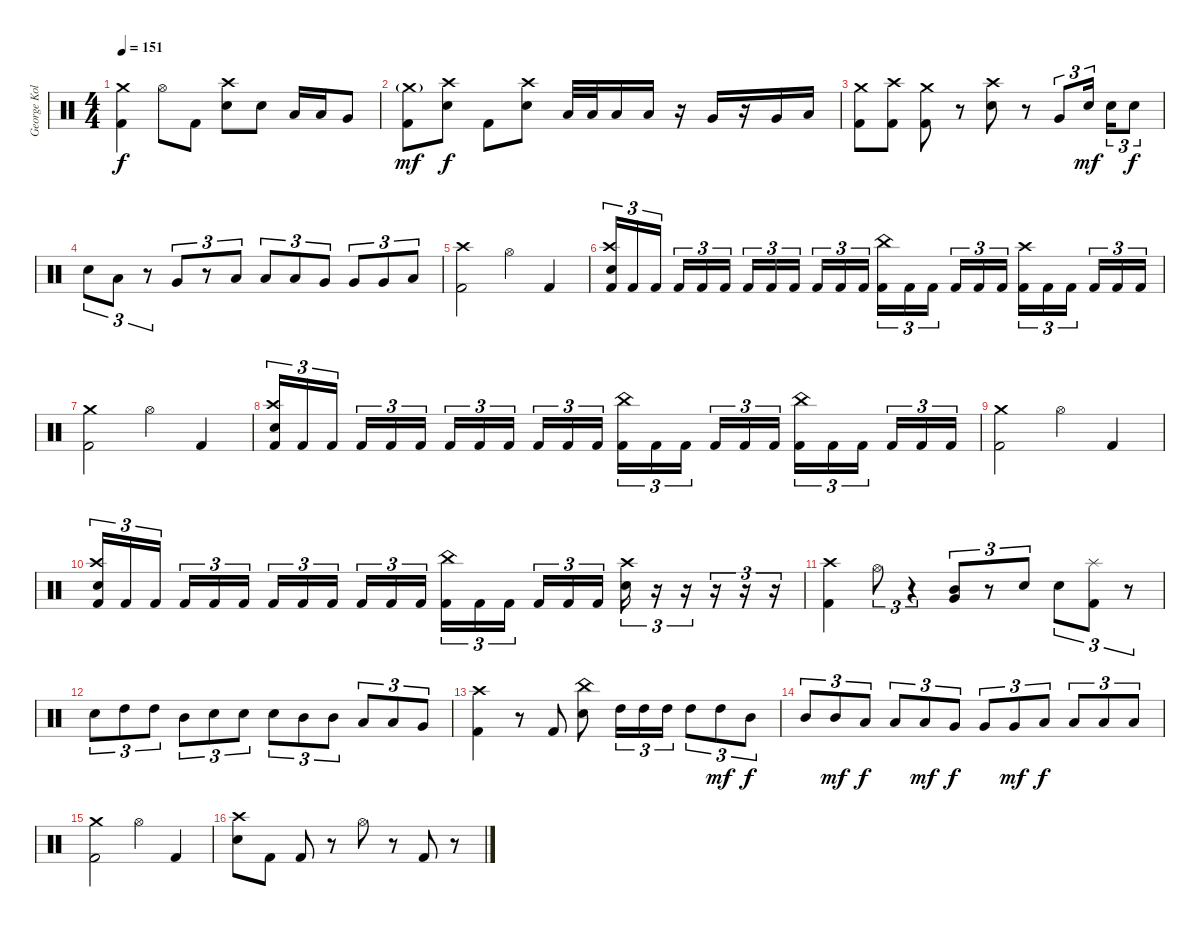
\track ("George Kollias" "George Kol") {instrument percussion}
\staff {score}
\articulation defaults
\ts (4 4)
\tempo 151
\clef neutral
\ks c
("Crash medium (hit)" "Kick (hit) 2").4{dy f} "Hi-Hat (open)".8 "Kick (hit) 2".8 ("Crash high (hit)" "Electric Snare (hit)").8 "Electric Snare (hit)".8 "Low Tom (hit)".16 "Low Tom (hit)".16 "Very Low Tom (hit)".8 |
("Crash medium (hit)"{g} "Kick (hit) 2").8{dy mf} ("Crash high (hit)" "Electric Snare (hit)").8{dy f} "Kick (hit) 2".8 ("Crash high (hit)" "Electric Snare (hit)").8 "Low Tom (hit)".32 "Low Tom (hit)".32 "Low Tom (hit)".16 "Low Tom (hit)".16 r.16 "Very Low Tom (hit)".16 r.16 "Very Low Tom (hit)".16 "Low Floor Tom (hit)".16 |
("Crash medium (hit)" "Kick (hit) 2").8 ("Crash high (hit)" "Kick (hit) 2").8 ("Crash medium (hit)" "Kick (hit) 2").8 r.8 ("Crash high (hit)" "Electric Snare (hit)").8 r.8 "Very Low Tom (hit)".8{tu (3 2)} "Electric Snare (hit)".16{tu (3 2) dy mf beam splitsecondary} "Electric Snare (hit)".16{tu (3 2)} "Electric Snare (hit)".8{tu (3 2) dy f} |
"Electric Snare (hit)".8{tu (3 2)} "Low Tom (hit)".8{tu (3 2)} r.8{tu (3 2)} "Very Low Tom (hit)".8{tu (3 2)} r.8{tu (3 2)} "Low Tom (hit)".8{tu (3 2)} "Low Tom (hit)".8{tu (3 2)} "Low Tom (hit)".8{tu (3 2)} "Very Low Tom (hit)".8{tu (3 2)} "Very Low Tom (hit)".8{tu (3 2)} "Very Low Tom (hit)".8{tu (3 2)} "Low Floor Tom (hit)".8{tu (3 2)} |
("Crash high (hit)" "Kick (hit) 2").2 "Hi-Hat (open)".4 "Kick (hit) 2".4 |
("Crash high (hit)" "Electric Snare (hit)" "Kick (hit) 2").16{tu (3 2)} "Kick (hit) 2".16{tu (3 2)} "Kick (hit) 2".16{tu (3 2) beam splitsecondary} "Kick (hit) 2".16{tu (3 2)} "Kick (hit) 2".16{tu (3 2)} "Kick (hit) 2".16{tu (3 2)} "Kick (hit) 2".16{tu (3 2)} "Kick (hit) 2".16{tu (3 2)} "Kick (hit) 2".16{tu (3 2) beam splitsecondary} "Kick (hit) 2".16{tu (3 2)} "Kick (hit) 2".16{tu (3 2)} "Kick (hit) 2".16{tu (3 2)} ("China (hit)" "Kick (hit) 2").16{tu (3 2)} "Kick (hit) 2".16{tu (3 2)} "Kick (hit) 2".16{tu (3 2) beam splitsecondary} "Kick (hit) 2".16{tu (3 2)} "Kick (hit) 2".16{tu (3 2)} "Kick (hit) 2".16{tu (3 2)} ("Crash high (hit)" "Kick (hit) 2").16{tu (3 2)} "Kick (hit) 2".16{tu (3 2)} "Kick (hit) 2".16{tu (3 2) beam splitsecondary} "Kick (hit) 2".16{tu (3 2)} "Kick (hit) 2".16{tu (3 2)} "Kick (hit) 2".16{tu (3 2)} |
("Crash medium (hit)" "Kick (hit) 2").2 "Hi-Hat (open)".4 "Kick (hit) 2".4 |
("Crash high (hit)" "Electric Snare (hit)" "Kick (hit) 2").16{tu (3 2)} "Kick (hit) 2".16{tu (3 2)} "Kick (hit) 2".16{tu (3 2) beam splitsecondary} "Kick (hit) 2".16{tu (3 2)} "Kick (hit) 2".16{tu (3 2)} "Kick (hit) 2".16{tu (3 2)} "Kick (hit) 2".16{tu (3 2)} "Kick (hit) 2".16{tu (3 2)} "Kick (hit) 2".16{tu (3 2) beam splitsecondary} "Kick (hit) 2".16{tu (3 2)} "Kick (hit) 2".16{tu (3 2)} "Kick (hit) 2".16{tu (3 2)} ("China (hit)" "Kick (hit) 2").16{tu (3 2)} "Kick (hit) 2".16{tu (3 2)} "Kick (hit) 2".16{tu (3 2) beam splitsecondary} "Kick (hit) 2".16{tu (3 2)} "Kick (hit) 2".16{tu (3 2)} "Kick (hit) 2".16{tu (3 2)} ("China (hit)" "Kick (hit) 2").16{tu (3 2)} "Kick (hit) 2".16{tu (3 2)} "Kick (hit) 2".16{tu (3 2) beam splitsecondary} "Kick (hit) 2".16{tu (3 2)} "Kick (hit) 2".16{tu (3 2)} "Kick (hit) 2".16{tu (3 2)} |
("Crash medium (hit)" "Kick (hit) 2").2 "Hi-Hat (open)".4 "Kick (hit) 2".4 |
("Crash high (hit)" "Electric Snare (hit)" "Kick (hit) 2").16{tu (3 2)} "Kick (hit) 2".16{tu (3 2)} "Kick (hit) 2".16{tu (3 2) beam splitsecondary} "Kick (hit) 2".16{tu (3 2)} "Kick (hit) 2".16{tu (3 2)} "Kick (hit) 2".16{tu (3 2)} "Kick (hit) 2".16{tu (3 2)} "Kick (hit) 2".16{tu (3 2)} "Kick (hit) 2".16{tu (3 2) beam splitsecondary} "Kick (hit) 2".16{tu (3 2)} "Kick (hit) 2".16{tu (3 2)} "Kick (hit) 2".16{tu (3 2)} ("China (hit)" "Kick (hit) 2").16{tu (3 2)} "Kick (hit) 2".16{tu (3 2)} "Kick (hit) 2".16{tu (3 2) beam splitsecondary} "Kick (hit) 2".16{tu (3 2)} "Kick (hit) 2".16{tu (3 2)} "Kick (hit) 2".16{tu (3 2)} ("Crash high (hit)" "Electric Snare (hit)").16{tu (3 2)} r.16{tu (3 2)} r.16{tu (3 2)} r.16{tu (3 2)} r.16{tu (3 2)} r.16{tu (3 2)} |
("Crash high (hit)" "Kick (hit) 2").4 "Hi-Hat (open)".8{tu (3 2)} r.4{tu (3 2)} ("Mid Tom (hit)" "Very Low Tom (hit)").8{tu (3 2)} r.8{tu (3 2)} "Electric Snare (hit)".8{tu (3 2)} "Electric Snare (hit)".8{tu (3 2)} ("Splash (hit)" "Kick (hit) 2").8{tu (3 2)} r.8{tu (3 2)} |
"Electric Snare (hit)".8{tu (3 2)} "High Tom (hit)".8{tu (3 2)} "High Tom (hit)".8{tu (3 2)} "Mid Tom (hit)".8{tu (3 2)} "Electric Snare (hit)".8{tu (3 2)} "Electric Snare (hit)".8{tu (3 2)} "Electric Snare (hit)".8{tu (3 2)} "Mid Tom (hit)".8{tu (3 2)} "Mid Tom (hit)".8{tu (3 2)} "Low Tom (hit)".8{tu (3 2)} "Low Tom (hit)".8{tu (3 2)} "Very Low Tom (hit)".8{tu (3 2)} |
("Crash high (hit)" "Kick (hit) 2").4 r.8 "Kick (hit) 2".8 ("China (hit)" "Electric Snare (hit)").8 "High Tom (hit)".16{tu (3 2)} "High Tom (hit)".16{tu (3 2)} "High Tom (hit)".16{tu (3 2)} "High Tom (hit)".8{tu (3 2)} "High Tom (hit)".8{tu (3 2) dy mf} "Mid Tom (hit)".8{tu (3 2) dy f} |
"Mid Tom (hit)".8{tu (3 2)} "Mid Tom (hit)".8{tu (3 2) dy mf} "Low Tom (hit)".8{tu (3 2) dy f} "Low Tom (hit)".8{tu (3 2)} "Low Tom (hit)".8{tu (3 2) dy mf} "Very Low Tom (hit)".8{tu (3 2) dy f} "Very Low Tom (hit)".8{tu (3 2)} "Very Low Tom (hit)".8{tu (3 2) dy mf} "Low Floor Tom (hit)".8{tu (3 2) dy f} "Low Floor Tom (hit)".8{tu (3 2)} "Low Floor Tom (hit)".8{tu (3 2)} "Low Floor Tom (hit)".8{tu (3 2)} |
("Crash medium (hit)" "Kick (hit) 2").2 "Hi-Hat (open)".4 "Kick (hit) 2".4 |
("Crash high (hit)" "Electric Snare (hit)").8 "Kick (hit) 2".8 "Kick (hit) 2".8 r.8 "Hi-Hat (open)".8 r.8 "Kick (hit) 2".8 r.8
